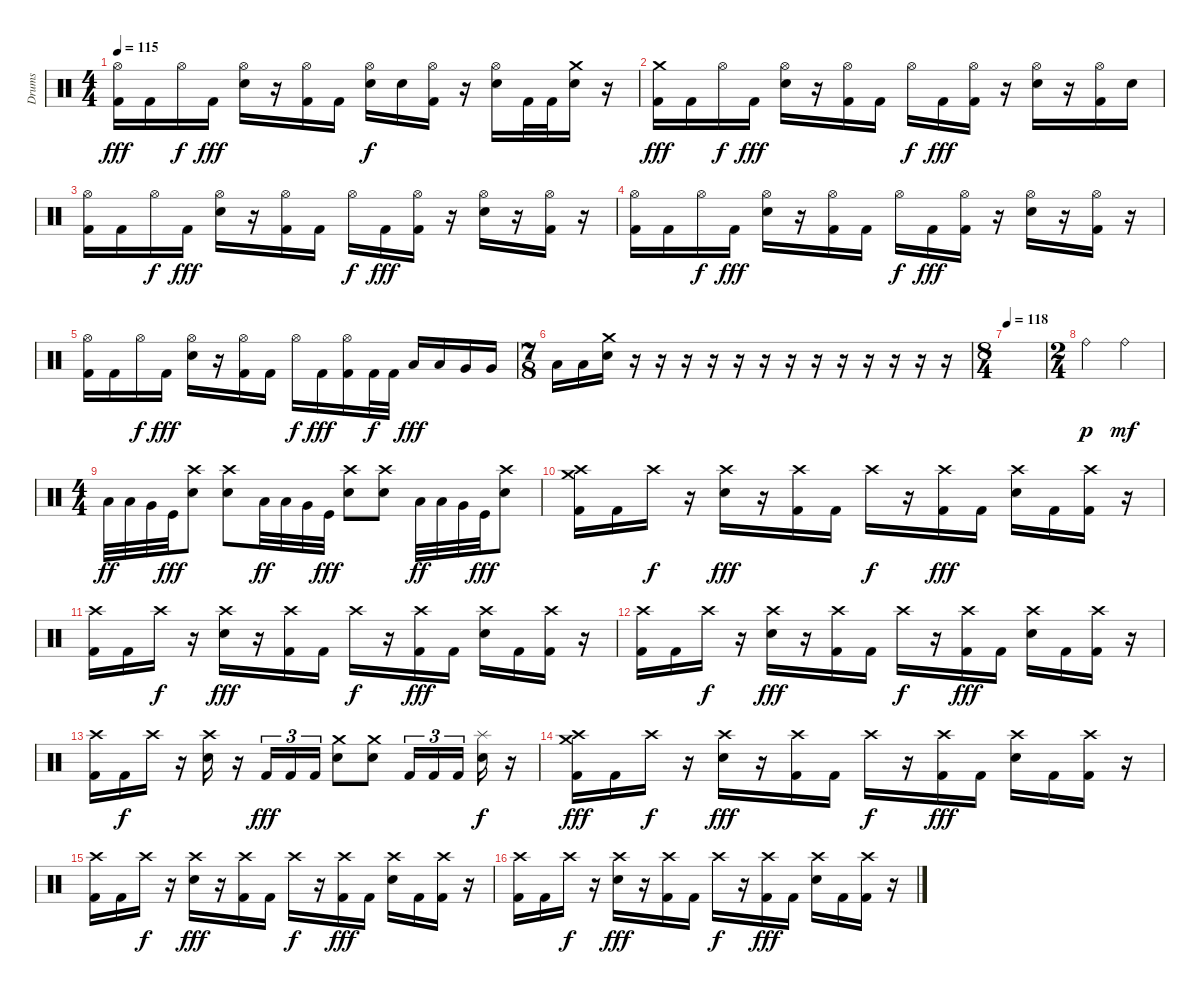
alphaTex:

\track ("Drums" "Drums") {instrument percussion}
\staff {score}
\articulation defaults
\ts (4 4)
\tempo 115
\clef neutral
\ks c
("Hi-Hat (open)" "Kick (hit) 2").16{dy fff} "Kick (hit) 2".16 "Hi-Hat (open)".16{dy f} "Kick (hit) 2".16{dy fff} ("Hi-Hat (open)" "Electric Snare (hit)").16 r.16 ("Hi-Hat (open)" "Kick (hit) 2").16 "Kick (hit) 2".16 ("Hi-Hat (open)" "Electric Snare (hit)").16{dy f} "Electric Snare (hit)".16 ("Hi-Hat (open)" "Kick (hit) 2").16 r.16 ("Hi-Hat (open)" "Electric Snare (hit)").16 "Kick (hit) 2".32 "Kick (hit) 2".32 ("Crash medium (hit)" "Electric Snare (hit)").16 r.16 |
("Crash medium (hit)" "Kick (hit) 2").16{dy fff} "Kick (hit) 2".16 "Hi-Hat (open)".16{dy f} "Kick (hit) 2".16{dy fff} ("Hi-Hat (open)" "Electric Snare (hit)").16 r.16 ("Hi-Hat (open)" "Kick (hit) 2").16 "Kick (hit) 2".16 "Hi-Hat (open)".16{dy f} "Kick (hit) 2".16{dy fff} ("Hi-Hat (open)" "Kick (hit) 2").16 r.16 ("Hi-Hat (open)" "Electric Snare (hit)").16 r.16 ("Hi-Hat (open)" "Kick (hit) 2").16 "Electric Snare (hit)".16 |
("Hi-Hat (open)" "Kick (hit) 2").16 "Kick (hit) 2".16 "Hi-Hat (open)".16{dy f} "Kick (hit) 2".16{dy fff} ("Hi-Hat (open)" "Electric Snare (hit)").16 r.16 ("Hi-Hat (open)" "Kick (hit) 2").16 "Kick (hit) 2".16 "Hi-Hat (open)".16{dy f} "Kick (hit) 2".16{dy fff} ("Hi-Hat (open)" "Kick (hit) 2").16 r.16 ("Hi-Hat (open)" "Electric Snare (hit)").16 r.16 ("Hi-Hat (open)" "Kick (hit) 2").16 r.16 |
("Hi-Hat (open)" "Kick (hit) 2").16 "Kick (hit) 2".16 "Hi-Hat (open)".16{dy f} "Kick (hit) 2".16{dy fff} ("Hi-Hat (open)" "Electric Snare (hit)").16 r.16 ("Hi-Hat (open)" "Kick (hit) 2").16 "Kick (hit) 2".16 "Hi-Hat (open)".16{dy f} "Kick (hit) 2".16{dy fff} ("Hi-Hat (open)" "Kick (hit) 2").16 r.16 ("Hi-Hat (open)" "Electric Snare (hit)").16 r.16 ("Hi-Hat (open)" "Kick (hit) 2").16 r.16 |
("Hi-Hat (open)" "Kick (hit) 2").16 "Kick (hit) 2".16 "Hi-Hat (open)".16{dy f} "Kick (hit) 2".16{dy fff} ("Hi-Hat (open)" "Electric Snare (hit)").16 r.16 ("Hi-Hat (open)" "Kick (hit) 2").16 "Kick (hit) 2".16 "Hi-Hat (open)".16{dy f} "Kick (hit) 2".16{dy fff} ("Hi-Hat (open)" "Kick (hit) 2").16 "Kick (hit) 2".32{dy f} "Kick (hit) 2".32 "Low Tom (hit)".16{dy fff} "Low Tom (hit)".16 "Very Low Tom (hit)".16 "Very Low Tom (hit)".16 |
\ts (7 8)
"Low Floor Tom (hit)".16 "Low Floor Tom (hit)".16 ("Electric Snare (hit)" "Crash medium (hit)").16 r.16 r.16 r.16 r.16 r.16 r.16 r.16 r.16 r.16 r.16 r.16 r.16 r.16 |
\ts (8 4)
\tempo 118
|
\ts (2 4)
"Ride (bell)".4{dy p} "Ride (bell)".4{dy mf} |
\ts (4 4)
"Low Floor Tom (hit)".32{dy ff} "Low Tom (hit)".32 "Very Low Tom (hit)".32 "Kick (hit)".32{dy fff} ("Electric Snare (hit)" "Crash high (hit)").8 ("Electric Snare (hit)" "Crash high (hit)").8 "Low Floor Tom (hit)".32{dy ff} "Low Tom (hit)".32 "Very Low Tom (hit)".32 "Kick (hit)".32{dy fff} ("Electric Snare (hit)" "Crash high (hit)").8 ("Electric Snare (hit)" "Crash high (hit)").8 "Low Floor Tom (hit)".32{dy ff} "Low Tom (hit)".32 "Very Low Tom (hit)".32 "Kick (hit)".32{dy fff} ("Electric Snare (hit)" "Crash high (hit)").8 |
("Crash medium (hit)" "Crash high (hit)" "Kick (hit) 2").16 "Kick (hit) 2".16 "Crash high (hit)".16{dy f} r.16 ("Crash high (hit)" "Electric Snare (hit)").16{dy fff} r.16 ("Crash high (hit)" "Kick (hit) 2").16 "Kick (hit) 2".16 "Crash high (hit)".16{dy f} r.16 ("Crash high (hit)" "Kick (hit) 2").16{dy fff} "Kick (hit) 2".16 ("Crash high (hit)" "Electric Snare (hit)").16 "Kick (hit) 2".16 ("Crash high (hit)" "Kick (hit) 2").16 r.16 |
("Crash high (hit)" "Kick (hit) 2").16 "Kick (hit) 2".16 "Crash high (hit)".16{dy f} r.16 ("Crash high (hit)" "Electric Snare (hit)").16{dy fff} r.16 ("Crash high (hit)" "Kick (hit) 2").16 "Kick (hit) 2".16 "Crash high (hit)".16{dy f} r.16 ("Crash high (hit)" "Kick (hit) 2").16{dy fff} "Kick (hit) 2".16 ("Crash high (hit)" "Electric Snare (hit)").16 "Kick (hit) 2".16 ("Crash high (hit)" "Kick (hit) 2").16 r.16 |
("Crash high (hit)" "Kick (hit) 2").16 "Kick (hit) 2".16 "Crash high (hit)".16{dy f} r.16 ("Crash high (hit)" "Electric Snare (hit)").16{dy fff} r.16 ("Crash high (hit)" "Kick (hit) 2").16 "Kick (hit) 2".16 "Crash high (hit)".16{dy f} r.16 ("Crash high (hit)" "Kick (hit) 2").16{dy fff} "Kick (hit) 2".16 ("Crash high (hit)" "Electric Snare (hit)").16 "Kick (hit) 2".16 ("Crash high (hit)" "Kick (hit) 2").16 r.16 |
("Crash high (hit)" "Kick (hit) 2").16 "Kick (hit) 2".16{dy f} "Crash high (hit)".16 r.16 ("Crash high (hit)" "Electric Snare (hit)").16 r.16 "Kick (hit) 2".16{tu (3 2) dy fff} "Kick (hit) 2".16{tu (3 2)} "Kick (hit) 2".16{tu (3 2)} ("Crash medium (hit)" "Electric Snare (hit)").8 ("Crash medium (hit)" "Electric Snare (hit)").8 "Kick (hit) 2".16{tu (3 2)} "Kick (hit) 2".16{tu (3 2)} "Kick (hit) 2".16{tu (3 2)} ("Splash (hit)" "Electric Snare (hit)").16{dy f} r.16 |
("Crash medium (hit)" "Crash high (hit)" "Kick (hit) 2").16{dy fff} "Kick (hit) 2".16 "Crash high (hit)".16{dy f} r.16 ("Crash high (hit)" "Electric Snare (hit)").16{dy fff} r.16 ("Crash high (hit)" "Kick (hit) 2").16 "Kick (hit) 2".16 "Crash high (hit)".16{dy f} r.16 ("Crash high (hit)" "Kick (hit) 2").16{dy fff} "Kick (hit) 2".16 ("Crash high (hit)" "Electric Snare (hit)").16 "Kick (hit) 2".16 ("Crash high (hit)" "Kick (hit) 2").16 r.16 |
("Crash high (hit)" "Kick (hit) 2").16 "Kick (hit) 2".16 "Crash high (hit)".16{dy f} r.16 ("Crash high (hit)" "Electric Snare (hit)").16{dy fff} r.16 ("Crash high (hit)" "Kick (hit) 2").16 "Kick (hit) 2".16 "Crash high (hit)".16{dy f} r.16 ("Crash high (hit)" "Kick (hit) 2").16{dy fff} "Kick (hit) 2".16 ("Crash high (hit)" "Electric Snare (hit)").16 "Kick (hit) 2".16 ("Crash high (hit)" "Kick (hit) 2").16 r.16 |
("Crash high (hit)" "Kick (hit) 2").16 "Kick (hit) 2".16 "Crash high (hit)".16{dy f} r.16 ("Crash high (hit)" "Electric Snare (hit)").16{dy fff} r.16 ("Crash high (hit)" "Kick (hit) 2").16 "Kick (hit) 2".16 "Crash high (hit)".16{dy f} r.16 ("Crash high (hit)" "Kick (hit) 2").16{dy fff} "Kick (hit) 2".16 ("Crash high (hit)" "Electric Snare (hit)").16 "Kick (hit) 2".16 ("Crash high (hit)" "Kick (hit) 2").16 r.16
